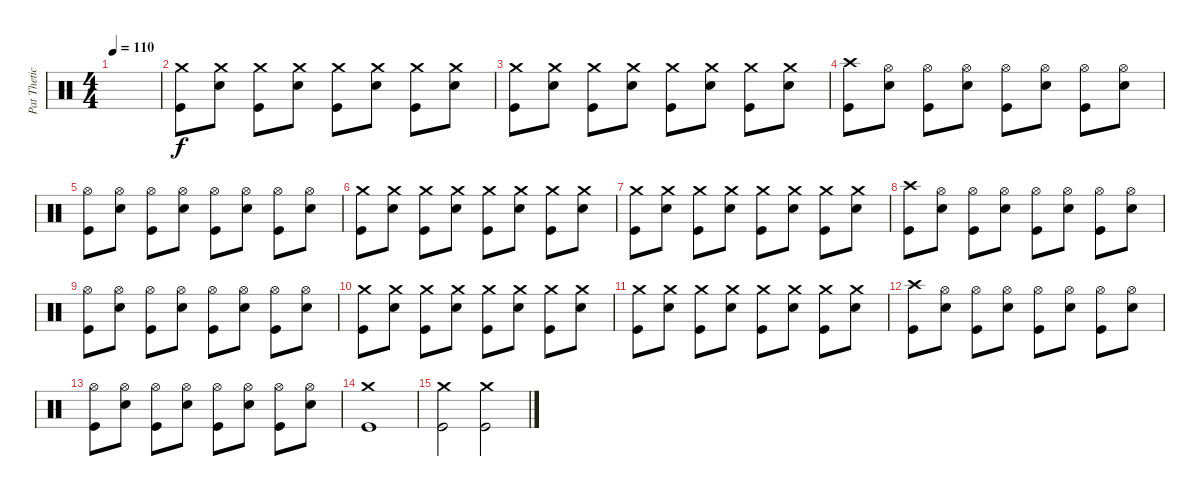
\track ("Pat Thetic Drums" "Pat Thetic") {instrument percussion}
\staff {score}
\articulation defaults
\ts (4 4)
\tempo 110
\clef neutral
\ks c
|
("Crash medium (hit)" "Kick (hit)").8 ("Crash medium (hit)" "Electric Snare (hit)").8 ("Crash medium (hit)" "Kick (hit)").8 ("Crash medium (hit)" "Electric Snare (hit)").8 ("Crash medium (hit)" "Kick (hit)").8 ("Crash medium (hit)" "Electric Snare (hit)").8 ("Crash medium (hit)" "Kick (hit)").8 ("Crash medium (hit)" "Electric Snare (hit)").8 |
("Crash medium (hit)" "Kick (hit)").8 ("Crash medium (hit)" "Electric Snare (hit)").8 ("Crash medium (hit)" "Kick (hit)").8 ("Crash medium (hit)" "Electric Snare (hit)").8 ("Crash medium (hit)" "Kick (hit)").8 ("Crash medium (hit)" "Electric Snare (hit)").8 ("Crash medium (hit)" "Kick (hit)").8 ("Crash medium (hit)" "Electric Snare (hit)").8 |
("Crash high (hit)" "Kick (hit)").8 ("Hi-Hat (open)" "Electric Snare (hit)").8 ("Hi-Hat (open)" "Kick (hit)").8 ("Hi-Hat (open)" "Electric Snare (hit)").8 ("Hi-Hat (open)" "Kick (hit)").8 ("Hi-Hat (open)" "Electric Snare (hit)").8 ("Hi-Hat (open)" "Kick (hit)").8 ("Hi-Hat (open)" "Electric Snare (hit)").8 |
("Hi-Hat (open)" "Kick (hit)").8 ("Hi-Hat (open)" "Electric Snare (hit)").8 ("Hi-Hat (open)" "Kick (hit)").8 ("Hi-Hat (open)" "Electric Snare (hit)").8 ("Hi-Hat (open)" "Kick (hit)").8 ("Hi-Hat (open)" "Electric Snare (hit)").8 ("Hi-Hat (open)" "Kick (hit)").8 ("Hi-Hat (open)" "Electric Snare (hit)").8 |
("Crash medium (hit)" "Kick (hit)").8 ("Crash medium (hit)" "Electric Snare (hit)").8 ("Crash medium (hit)" "Kick (hit)").8 ("Crash medium (hit)" "Electric Snare (hit)").8 ("Crash medium (hit)" "Kick (hit)").8 ("Crash medium (hit)" "Electric Snare (hit)").8 ("Crash medium (hit)" "Kick (hit)").8 ("Crash medium (hit)" "Electric Snare (hit)").8 |
("Crash medium (hit)" "Kick (hit)").8 ("Crash medium (hit)" "Electric Snare (hit)").8 ("Crash medium (hit)" "Kick (hit)").8 ("Crash medium (hit)" "Electric Snare (hit)").8 ("Crash medium (hit)" "Kick (hit)").8 ("Crash medium (hit)" "Electric Snare (hit)").8 ("Crash medium (hit)" "Kick (hit)").8 ("Crash medium (hit)" "Electric Snare (hit)").8 |
("Crash high (hit)" "Kick (hit)").8 ("Hi-Hat (open)" "Electric Snare (hit)").8 ("Hi-Hat (open)" "Kick (hit)").8 ("Hi-Hat (open)" "Electric Snare (hit)").8 ("Hi-Hat (open)" "Kick (hit)").8 ("Hi-Hat (open)" "Electric Snare (hit)").8 ("Hi-Hat (open)" "Kick (hit)").8 ("Hi-Hat (open)" "Electric Snare (hit)").8 |
("Hi-Hat (open)" "Kick (hit)").8 ("Hi-Hat (open)" "Electric Snare (hit)").8 ("Hi-Hat (open)" "Kick (hit)").8 ("Hi-Hat (open)" "Electric Snare (hit)").8 ("Hi-Hat (open)" "Kick (hit)").8 ("Hi-Hat (open)" "Electric Snare (hit)").8 ("Hi-Hat (open)" "Kick (hit)").8 ("Hi-Hat (open)" "Electric Snare (hit)").8 |
("Crash medium (hit)" "Kick (hit)").8 ("Crash medium (hit)" "Electric Snare (hit)").8 ("Crash medium (hit)" "Kick (hit)").8 ("Crash medium (hit)" "Electric Snare (hit)").8 ("Crash medium (hit)" "Kick (hit)").8 ("Crash medium (hit)" "Electric Snare (hit)").8 ("Crash medium (hit)" "Kick (hit)").8 ("Crash medium (hit)" "Electric Snare (hit)").8 |
("Crash medium (hit)" "Kick (hit)").8 ("Crash medium (hit)" "Electric Snare (hit)").8 ("Crash medium (hit)" "Kick (hit)").8 ("Crash medium (hit)" "Electric Snare (hit)").8 ("Crash medium (hit)" "Kick (hit)").8 ("Crash medium (hit)" "Electric Snare (hit)").8 ("Crash medium (hit)" "Kick (hit)").8 ("Crash medium (hit)" "Electric Snare (hit)").8 |
("Crash high (hit)" "Kick (hit)").8 ("Hi-Hat (open)" "Electric Snare (hit)").8 ("Hi-Hat (open)" "Kick (hit)").8 ("Hi-Hat (open)" "Electric Snare (hit)").8 ("Hi-Hat (open)" "Kick (hit)").8 ("Hi-Hat (open)" "Electric Snare (hit)").8 ("Hi-Hat (open)" "Kick (hit)").8 ("Hi-Hat (open)" "Electric Snare (hit)").8 |
("Hi-Hat (open)" "Kick (hit)").8 ("Hi-Hat (open)" "Electric Snare (hit)").8 ("Hi-Hat (open)" "Kick (hit)").8 ("Hi-Hat (open)" "Electric Snare (hit)").8 ("Hi-Hat (open)" "Kick (hit)").8 ("Hi-Hat (open)" "Electric Snare (hit)").8 ("Hi-Hat (open)" "Kick (hit)").8 ("Hi-Hat (open)" "Electric Snare (hit)").8 |
("Crash medium (hit)" "Kick (hit)").1 |
("Crash medium (hit)" "Kick (hit)").2 ("Crash medium (hit)" "Kick (hit)").2
